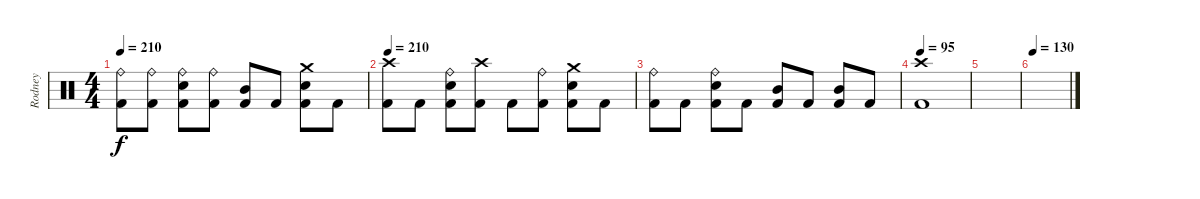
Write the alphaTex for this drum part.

\track ("Rodney" "Rodney") {instrument percussion}
\staff {score}
\articulation defaults
\ts (4 4)
\tempo 210
\clef neutral
\ks c
("Ride (bell)" "Kick (hit) 2").8{dy f} ("Ride (bell)" "Kick (hit) 2").8 ("Ride (bell)" "Snare (hit) 2" "Kick (hit) 2").8 ("Ride (bell)" "Kick (hit) 2").8 ("Mid Tom (hit)" "Kick (hit) 2").8 "Kick (hit) 2".8 ("Crash medium (hit)" "Snare (hit) 2" "Kick (hit) 2").8 "Kick (hit) 2".8 |
\tempo 210
("Crash high (hit)" "Kick (hit) 2").8 "Kick (hit) 2".8 ("Ride (bell)" "Snare (hit) 2" "Kick (hit) 2").8 ("Crash high (hit)" "Kick (hit) 2").8 "Kick (hit) 2".8 ("Ride (bell)" "Kick (hit) 2").8 ("Crash medium (hit)" "Snare (hit) 2" "Kick (hit) 2").8 "Kick (hit) 2".8 |
("Ride (bell)" "Kick (hit) 2").8 "Kick (hit) 2".8 ("Ride (bell)" "Snare (hit) 2" "Kick (hit) 2").8 "Kick (hit) 2".8 ("Mid Tom (hit)" "Kick (hit) 2").8 "Kick (hit) 2".8 ("Mid Tom (hit)" "Kick (hit) 2").8 "Kick (hit) 2".8 |
\tempo 95
("Crash high (hit)" "Kick (hit) 2").1 |
|
\tempo 130
